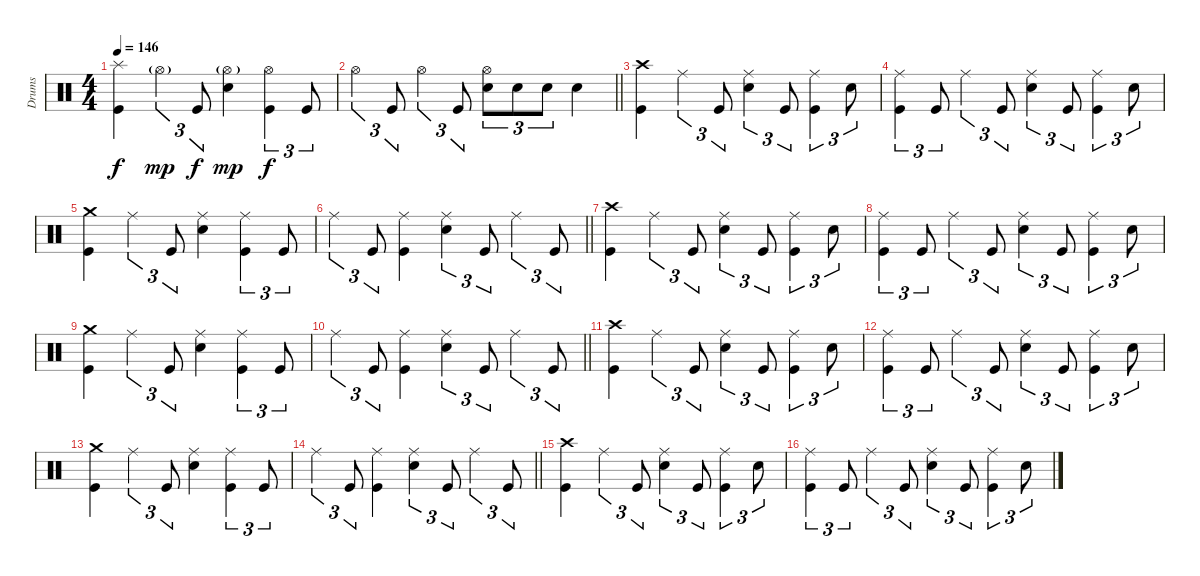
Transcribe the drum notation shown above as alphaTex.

\track ("Drums" "Drums") {instrument percussion}
\staff
\articulation defaults
\ts (4 4)
\tempo 146
\clef neutral
\ks c
("Splash (hit)" "Kick (hit)").4{dy f} "Hi-Hat (open)"{g}.4{tu (3 2) dy mp} "Kick (hit)".8{tu (3 2) dy f} ("Hi-Hat (open)"{g} "Electric Snare (hit)").4{dy mp} ("Hi-Hat (open)" "Kick (hit)").4{tu (3 2) dy f} "Kick (hit)".8{tu (3 2)} |
\barLineRight lightlight "Hi-Hat (open)".4{tu (3 2)} "Kick (hit)".8{tu (3 2)} "Hi-Hat (open)".4{tu (3 2)} "Kick (hit)".8{tu (3 2)}
("Hi-Hat (open)" "Electric Snare (hit)").8{tu (3 2)} "Electric Snare (hit)".8{tu (3 2)} "Electric Snare (hit)".8{tu (3 2)} "Electric Snare (hit)".4 |
\section ("" "")
("Crash high (hit)" "Kick (hit)").4 "Ride (middle)".4{tu (3 2)} "Kick (hit)".8{tu (3 2)} ("Ride (middle)" "Electric Snare (hit)").4{tu (3 2)} "Kick (hit)".8{tu (3 2)} ("Ride (middle)" "Kick (hit)").4{tu (3 2)} "Electric Snare (hit)".8{tu (3 2)} |
("Ride (middle)" "Kick (hit)").4{tu (3 2)} "Kick (hit)".8{tu (3 2)} "Ride (middle)".4{tu (3 2)} "Kick (hit)".8{tu (3 2)} ("Ride (middle)" "Electric Snare (hit)").4{tu (3 2)} "Kick (hit)".8{tu (3 2)} ("Ride (middle)" "Kick (hit)").4{tu (3 2)} "Electric Snare (hit)".8{tu (3 2)} |
("Crash medium (hit)" "Kick (hit)").4 "Ride (middle)".4{tu (3 2)} "Kick (hit)".8{tu (3 2)} ("Ride (middle)" "Electric Snare (hit)").4 ("Ride (middle)" "Kick (hit)").4{tu (3 2)} "Kick (hit)".8{tu (3 2)} |
\barLineRight lightlight "Ride (middle)".4{tu (3 2)} "Kick (hit)".8{tu (3 2)}
("Ride (middle)" "Kick (hit)").4 ("Ride (middle)" "Electric Snare (hit)").4{tu (3 2)} "Kick (hit)".8{tu (3 2)} "Ride (middle)".4{tu (3 2)} "Kick (hit)".8{tu (3 2)} |
("Crash high (hit)" "Kick (hit)").4 "Ride (middle)".4{tu (3 2)} "Kick (hit)".8{tu (3 2)} ("Ride (middle)" "Electric Snare (hit)").4{tu (3 2)} "Kick (hit)".8{tu (3 2)} ("Ride (middle)" "Kick (hit)").4{tu (3 2)} "Electric Snare (hit)".8{tu (3 2)} |
("Ride (middle)" "Kick (hit)").4{tu (3 2)} "Kick (hit)".8{tu (3 2)} "Ride (middle)".4{tu (3 2)} "Kick (hit)".8{tu (3 2)} ("Ride (middle)" "Electric Snare (hit)").4{tu (3 2)} "Kick (hit)".8{tu (3 2)} ("Ride (middle)" "Kick (hit)").4{tu (3 2)} "Electric Snare (hit)".8{tu (3 2)} |
("Crash medium (hit)" "Kick (hit)").4 "Ride (middle)".4{tu (3 2)} "Kick (hit)".8{tu (3 2)} ("Ride (middle)" "Electric Snare (hit)").4 ("Ride (middle)" "Kick (hit)").4{tu (3 2)} "Kick (hit)".8{tu (3 2)} |
\barLineRight lightlight "Ride (middle)".4{tu (3 2)} "Kick (hit)".8{tu (3 2)}
("Ride (middle)" "Kick (hit)").4 ("Ride (middle)" "Electric Snare (hit)").4{tu (3 2)} "Kick (hit)".8{tu (3 2)} "Ride (middle)".4{tu (3 2)} "Kick (hit)".8{tu (3 2)} |
("Crash high (hit)" "Kick (hit)").4 "Ride (middle)".4{tu (3 2)} "Kick (hit)".8{tu (3 2)} ("Ride (middle)" "Electric Snare (hit)").4{tu (3 2)} "Kick (hit)".8{tu (3 2)} ("Ride (middle)" "Kick (hit)").4{tu (3 2)} "Electric Snare (hit)".8{tu (3 2)} |
("Ride (middle)" "Kick (hit)").4{tu (3 2)} "Kick (hit)".8{tu (3 2)} "Ride (middle)".4{tu (3 2)} "Kick (hit)".8{tu (3 2)} ("Ride (middle)" "Electric Snare (hit)").4{tu (3 2)} "Kick (hit)".8{tu (3 2)} ("Ride (middle)" "Kick (hit)").4{tu (3 2)} "Electric Snare (hit)".8{tu (3 2)} |
("Crash medium (hit)" "Kick (hit)").4 "Ride (middle)".4{tu (3 2)} "Kick (hit)".8{tu (3 2)} ("Ride (middle)" "Electric Snare (hit)").4 ("Ride (middle)" "Kick (hit)").4{tu (3 2)} "Kick (hit)".8{tu (3 2)} |
\barLineRight lightlight "Ride (middle)".4{tu (3 2)} "Kick (hit)".8{tu (3 2)}
("Ride (middle)" "Kick (hit)").4 ("Ride (middle)" "Electric Snare (hit)").4{tu (3 2)} "Kick (hit)".8{tu (3 2)} "Ride (middle)".4{tu (3 2)} "Kick (hit)".8{tu (3 2)} |
("Crash high (hit)" "Kick (hit)").4 "Ride (middle)".4{tu (3 2)} "Kick (hit)".8{tu (3 2)} ("Ride (middle)" "Electric Snare (hit)").4{tu (3 2)} "Kick (hit)".8{tu (3 2)} ("Ride (middle)" "Kick (hit)").4{tu (3 2)} "Electric Snare (hit)".8{tu (3 2)} |
("Ride (middle)" "Kick (hit)").4{tu (3 2)} "Kick (hit)".8{tu (3 2)} "Ride (middle)".4{tu (3 2)} "Kick (hit)".8{tu (3 2)} ("Ride (middle)" "Electric Snare (hit)").4{tu (3 2)} "Kick (hit)".8{tu (3 2)} ("Ride (middle)" "Kick (hit)").4{tu (3 2)} "Electric Snare (hit)".8{tu (3 2)}
